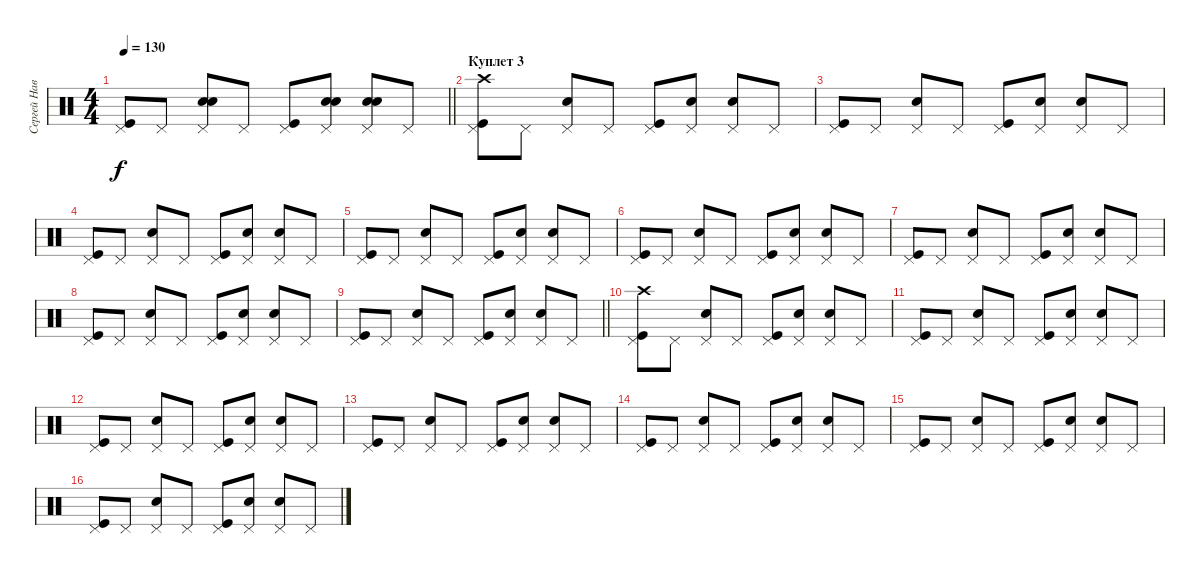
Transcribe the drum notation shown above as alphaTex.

\track ("Сергей Наветный" "Сергей Нав") {instrument percussion}
\staff {score}
\articulation defaults
\ts (4 4)
\tempo 130
\clef neutral
\barLineRight lightlight
\ks c
("Kick (hit)" "Pedal Hi-Hat (hit)").8{dy f} "Pedal Hi-Hat (hit)".8 ("Hand Clap (hit)" "Snare (hit) 2" "Pedal Hi-Hat (hit)").8 "Pedal Hi-Hat (hit)".8 ("Kick (hit)" "Pedal Hi-Hat (hit)").8 ("Hand Clap (hit)" "Snare (hit) 2" "Pedal Hi-Hat (hit)").8 ("Hand Clap (hit)" "Snare (hit) 2" "Pedal Hi-Hat (hit)").8 "Pedal Hi-Hat (hit)".8 |
\section ("" "Куплет 3")
("Pedal Hi-Hat (hit)" "Kick (hit)" "Crash high (hit)").8 "Pedal Hi-Hat (hit)".8 ("Pedal Hi-Hat (hit)" "Snare (hit) 2").8 "Pedal Hi-Hat (hit)".8 ("Kick (hit)" "Pedal Hi-Hat (hit)").8 ("Snare (hit) 2" "Pedal Hi-Hat (hit)").8 ("Snare (hit) 2" "Pedal Hi-Hat (hit)").8 "Pedal Hi-Hat (hit)".8 |
("Pedal Hi-Hat (hit)" "Kick (hit)").8 "Pedal Hi-Hat (hit)".8 ("Pedal Hi-Hat (hit)" "Snare (hit) 2").8 "Pedal Hi-Hat (hit)".8 ("Kick (hit)" "Pedal Hi-Hat (hit)").8 ("Snare (hit) 2" "Pedal Hi-Hat (hit)").8 ("Snare (hit) 2" "Pedal Hi-Hat (hit)").8 "Pedal Hi-Hat (hit)".8 |
("Pedal Hi-Hat (hit)" "Kick (hit)").8 "Pedal Hi-Hat (hit)".8 ("Pedal Hi-Hat (hit)" "Snare (hit) 2").8 "Pedal Hi-Hat (hit)".8 ("Kick (hit)" "Pedal Hi-Hat (hit)").8 ("Snare (hit) 2" "Pedal Hi-Hat (hit)").8 ("Snare (hit) 2" "Pedal Hi-Hat (hit)").8 "Pedal Hi-Hat (hit)".8 |
("Pedal Hi-Hat (hit)" "Kick (hit)").8 "Pedal Hi-Hat (hit)".8 ("Pedal Hi-Hat (hit)" "Snare (hit) 2").8 "Pedal Hi-Hat (hit)".8 ("Kick (hit)" "Pedal Hi-Hat (hit)").8 ("Snare (hit) 2" "Pedal Hi-Hat (hit)").8 ("Snare (hit) 2" "Pedal Hi-Hat (hit)").8 "Pedal Hi-Hat (hit)".8 |
("Pedal Hi-Hat (hit)" "Kick (hit)").8 "Pedal Hi-Hat (hit)".8 ("Pedal Hi-Hat (hit)" "Snare (hit) 2").8 "Pedal Hi-Hat (hit)".8 ("Kick (hit)" "Pedal Hi-Hat (hit)").8 ("Snare (hit) 2" "Pedal Hi-Hat (hit)").8 ("Snare (hit) 2" "Pedal Hi-Hat (hit)").8 "Pedal Hi-Hat (hit)".8 |
("Pedal Hi-Hat (hit)" "Kick (hit)").8 "Pedal Hi-Hat (hit)".8 ("Pedal Hi-Hat (hit)" "Snare (hit) 2").8 "Pedal Hi-Hat (hit)".8 ("Kick (hit)" "Pedal Hi-Hat (hit)").8 ("Snare (hit) 2" "Pedal Hi-Hat (hit)").8 ("Snare (hit) 2" "Pedal Hi-Hat (hit)").8 "Pedal Hi-Hat (hit)".8 |
("Pedal Hi-Hat (hit)" "Kick (hit)").8 "Pedal Hi-Hat (hit)".8 ("Pedal Hi-Hat (hit)" "Snare (hit) 2").8 "Pedal Hi-Hat (hit)".8 ("Kick (hit)" "Pedal Hi-Hat (hit)").8 ("Snare (hit) 2" "Pedal Hi-Hat (hit)").8 ("Snare (hit) 2" "Pedal Hi-Hat (hit)").8 "Pedal Hi-Hat (hit)".8 |
\barLineRight lightlight
("Pedal Hi-Hat (hit)" "Kick (hit)").8 "Pedal Hi-Hat (hit)".8 ("Pedal Hi-Hat (hit)" "Snare (hit) 2").8 "Pedal Hi-Hat (hit)".8 ("Kick (hit)" "Pedal Hi-Hat (hit)").8 ("Snare (hit) 2" "Pedal Hi-Hat (hit)").8 ("Snare (hit) 2" "Pedal Hi-Hat (hit)").8 "Pedal Hi-Hat (hit)".8 |
("Pedal Hi-Hat (hit)" "Kick (hit)" "Crash high (hit)").8 "Pedal Hi-Hat (hit)".8 ("Pedal Hi-Hat (hit)" "Snare (hit) 2").8 "Pedal Hi-Hat (hit)".8 ("Kick (hit)" "Pedal Hi-Hat (hit)").8 ("Snare (hit) 2" "Pedal Hi-Hat (hit)").8 ("Snare (hit) 2" "Pedal Hi-Hat (hit)").8 "Pedal Hi-Hat (hit)".8 |
("Pedal Hi-Hat (hit)" "Kick (hit)").8 "Pedal Hi-Hat (hit)".8 ("Pedal Hi-Hat (hit)" "Snare (hit) 2").8 "Pedal Hi-Hat (hit)".8 ("Kick (hit)" "Pedal Hi-Hat (hit)").8 ("Snare (hit) 2" "Pedal Hi-Hat (hit)").8 ("Snare (hit) 2" "Pedal Hi-Hat (hit)").8 "Pedal Hi-Hat (hit)".8 |
("Pedal Hi-Hat (hit)" "Kick (hit)").8 "Pedal Hi-Hat (hit)".8 ("Pedal Hi-Hat (hit)" "Snare (hit) 2").8 "Pedal Hi-Hat (hit)".8 ("Kick (hit)" "Pedal Hi-Hat (hit)").8 ("Snare (hit) 2" "Pedal Hi-Hat (hit)").8 ("Snare (hit) 2" "Pedal Hi-Hat (hit)").8 "Pedal Hi-Hat (hit)".8 |
("Pedal Hi-Hat (hit)" "Kick (hit)").8 "Pedal Hi-Hat (hit)".8 ("Pedal Hi-Hat (hit)" "Snare (hit) 2").8 "Pedal Hi-Hat (hit)".8 ("Kick (hit)" "Pedal Hi-Hat (hit)").8 ("Snare (hit) 2" "Pedal Hi-Hat (hit)").8 ("Snare (hit) 2" "Pedal Hi-Hat (hit)").8 "Pedal Hi-Hat (hit)".8 |
("Pedal Hi-Hat (hit)" "Kick (hit)").8 "Pedal Hi-Hat (hit)".8 ("Pedal Hi-Hat (hit)" "Snare (hit) 2").8 "Pedal Hi-Hat (hit)".8 ("Kick (hit)" "Pedal Hi-Hat (hit)").8 ("Snare (hit) 2" "Pedal Hi-Hat (hit)").8 ("Snare (hit) 2" "Pedal Hi-Hat (hit)").8 "Pedal Hi-Hat (hit)".8 |
("Pedal Hi-Hat (hit)" "Kick (hit)").8 "Pedal Hi-Hat (hit)".8 ("Pedal Hi-Hat (hit)" "Snare (hit) 2").8 "Pedal Hi-Hat (hit)".8 ("Kick (hit)" "Pedal Hi-Hat (hit)").8 ("Snare (hit) 2" "Pedal Hi-Hat (hit)").8 ("Snare (hit) 2" "Pedal Hi-Hat (hit)").8 "Pedal Hi-Hat (hit)".8 |
("Pedal Hi-Hat (hit)" "Kick (hit)").8 "Pedal Hi-Hat (hit)".8 ("Pedal Hi-Hat (hit)" "Snare (hit) 2").8 "Pedal Hi-Hat (hit)".8 ("Kick (hit)" "Pedal Hi-Hat (hit)").8 ("Snare (hit) 2" "Pedal Hi-Hat (hit)").8 ("Snare (hit) 2" "Pedal Hi-Hat (hit)").8 "Pedal Hi-Hat (hit)".8
